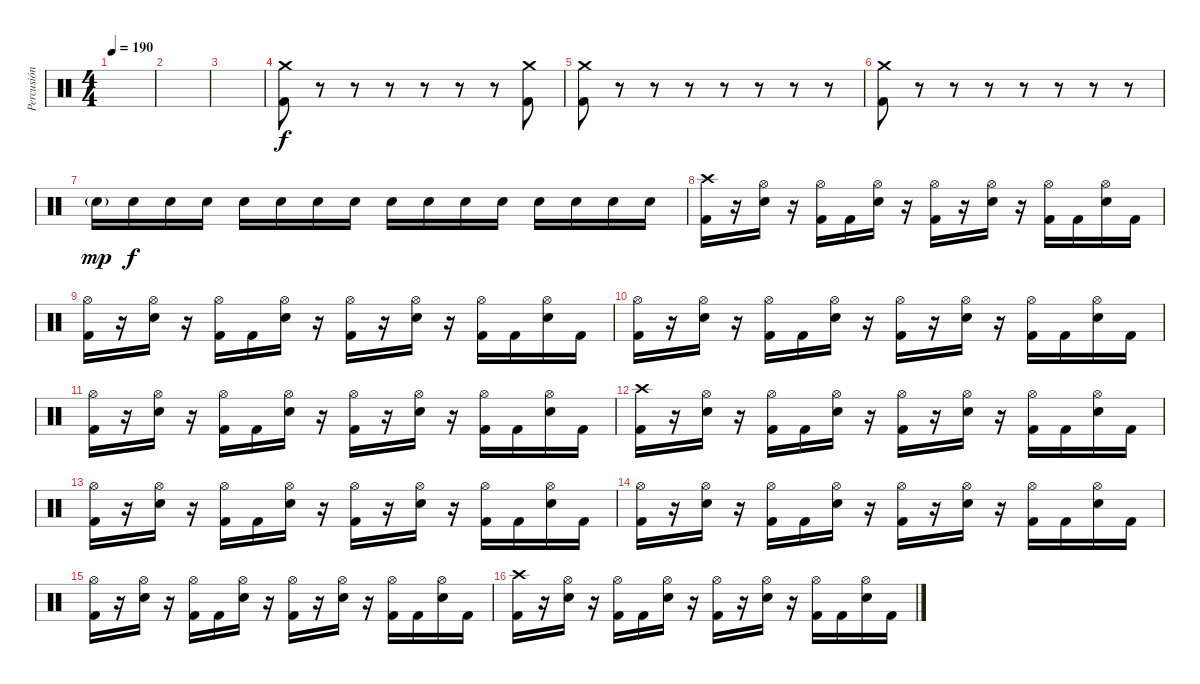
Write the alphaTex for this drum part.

\track ("Percusión" "Percusión") {instrument percussion}
\staff {score}
\articulation defaults
\ts (4 4)
\tempo 190
\clef neutral
\ks c
|
|
|
("Crash medium (hit)" "Kick (hit) 2").8 r.8 r.8 r.8 r.8 r.8 r.8 ("Crash medium (hit)" "Kick (hit) 2").8 |
("Crash medium (hit)" "Kick (hit) 2").8 r.8 r.8 r.8 r.8 r.8 r.8 r.8 |
("Crash medium (hit)" "Kick (hit) 2").8 r.8 r.8 r.8 r.8 r.8 r.8 r.8 |
"Electric Snare (hit)"{g}.16{dy mp} "Electric Snare (hit)".16{dy f} "Electric Snare (hit)".16 "Electric Snare (hit)".16 "Electric Snare (hit)".16 "Electric Snare (hit)".16 "Electric Snare (hit)".16 "Electric Snare (hit)".16 "Electric Snare (hit)".16 "Electric Snare (hit)".16 "Electric Snare (hit)".16 "Electric Snare (hit)".16 "Electric Snare (hit)".16 "Electric Snare (hit)".16 "Electric Snare (hit)".16 "Electric Snare (hit)".16 |
("Crash high (hit)" "Kick (hit) 2").16 r.16 ("Hi-Hat (open)" "Electric Snare (hit)").16 r.16 ("Hi-Hat (open)" "Kick (hit) 2").16 "Kick (hit) 2".16 ("Hi-Hat (open)" "Electric Snare (hit)").16 r.16 ("Hi-Hat (open)" "Kick (hit) 2").16 r.16 ("Hi-Hat (open)" "Electric Snare (hit)").16 r.16 ("Hi-Hat (open)" "Kick (hit) 2").16 "Kick (hit) 2".16 ("Hi-Hat (open)" "Electric Snare (hit)").16 "Kick (hit) 2".16 |
("Hi-Hat (open)" "Kick (hit) 2").16 r.16 ("Hi-Hat (open)" "Electric Snare (hit)").16 r.16 ("Hi-Hat (open)" "Kick (hit) 2").16 "Kick (hit) 2".16 ("Hi-Hat (open)" "Electric Snare (hit)").16 r.16 ("Hi-Hat (open)" "Kick (hit) 2").16 r.16 ("Hi-Hat (open)" "Electric Snare (hit)").16 r.16 ("Hi-Hat (open)" "Kick (hit) 2").16 "Kick (hit) 2".16 ("Hi-Hat (open)" "Electric Snare (hit)").16 "Kick (hit) 2".16 |
("Hi-Hat (open)" "Kick (hit) 2").16 r.16 ("Hi-Hat (open)" "Electric Snare (hit)").16 r.16 ("Hi-Hat (open)" "Kick (hit) 2").16 "Kick (hit) 2".16 ("Hi-Hat (open)" "Electric Snare (hit)").16 r.16 ("Hi-Hat (open)" "Kick (hit) 2").16 r.16 ("Hi-Hat (open)" "Electric Snare (hit)").16 r.16 ("Hi-Hat (open)" "Kick (hit) 2").16 "Kick (hit) 2".16 ("Hi-Hat (open)" "Electric Snare (hit)").16 "Kick (hit) 2".16 |
("Hi-Hat (open)" "Kick (hit) 2").16 r.16 ("Hi-Hat (open)" "Electric Snare (hit)").16 r.16 ("Hi-Hat (open)" "Kick (hit) 2").16 "Kick (hit) 2".16 ("Hi-Hat (open)" "Electric Snare (hit)").16 r.16 ("Hi-Hat (open)" "Kick (hit) 2").16 r.16 ("Hi-Hat (open)" "Electric Snare (hit)").16 r.16 ("Hi-Hat (open)" "Kick (hit) 2").16 "Kick (hit) 2".16 ("Hi-Hat (open)" "Electric Snare (hit)").16 "Kick (hit) 2".16 |
("Crash high (hit)" "Kick (hit) 2").16 r.16 ("Hi-Hat (open)" "Electric Snare (hit)").16 r.16 ("Hi-Hat (open)" "Kick (hit) 2").16 "Kick (hit) 2".16 ("Hi-Hat (open)" "Electric Snare (hit)").16 r.16 ("Hi-Hat (open)" "Kick (hit) 2").16 r.16 ("Hi-Hat (open)" "Electric Snare (hit)").16 r.16 ("Hi-Hat (open)" "Kick (hit) 2").16 "Kick (hit) 2".16 ("Hi-Hat (open)" "Electric Snare (hit)").16 "Kick (hit) 2".16 |
("Hi-Hat (open)" "Kick (hit) 2").16 r.16 ("Hi-Hat (open)" "Electric Snare (hit)").16 r.16 ("Hi-Hat (open)" "Kick (hit) 2").16 "Kick (hit) 2".16 ("Hi-Hat (open)" "Electric Snare (hit)").16 r.16 ("Hi-Hat (open)" "Kick (hit) 2").16 r.16 ("Hi-Hat (open)" "Electric Snare (hit)").16 r.16 ("Hi-Hat (open)" "Kick (hit) 2").16 "Kick (hit) 2".16 ("Hi-Hat (open)" "Electric Snare (hit)").16 "Kick (hit) 2".16 |
("Hi-Hat (open)" "Kick (hit) 2").16 r.16 ("Hi-Hat (open)" "Electric Snare (hit)").16 r.16 ("Hi-Hat (open)" "Kick (hit) 2").16 "Kick (hit) 2".16 ("Hi-Hat (open)" "Electric Snare (hit)").16 r.16 ("Hi-Hat (open)" "Kick (hit) 2").16 r.16 ("Hi-Hat (open)" "Electric Snare (hit)").16 r.16 ("Hi-Hat (open)" "Kick (hit) 2").16 "Kick (hit) 2".16 ("Hi-Hat (open)" "Electric Snare (hit)").16 "Kick (hit) 2".16 |
("Hi-Hat (open)" "Kick (hit) 2").16 r.16 ("Hi-Hat (open)" "Electric Snare (hit)").16 r.16 ("Hi-Hat (open)" "Kick (hit) 2").16 "Kick (hit) 2".16 ("Hi-Hat (open)" "Electric Snare (hit)").16 r.16 ("Hi-Hat (open)" "Kick (hit) 2").16 r.16 ("Hi-Hat (open)" "Electric Snare (hit)").16 r.16 ("Hi-Hat (open)" "Kick (hit) 2").16 "Kick (hit) 2".16 ("Hi-Hat (open)" "Electric Snare (hit)").16 "Kick (hit) 2".16 |
("Crash high (hit)" "Kick (hit) 2").16 r.16 ("Hi-Hat (open)" "Electric Snare (hit)").16 r.16 ("Hi-Hat (open)" "Kick (hit) 2").16 "Kick (hit) 2".16 ("Hi-Hat (open)" "Electric Snare (hit)").16 r.16 ("Hi-Hat (open)" "Kick (hit) 2").16 r.16 ("Hi-Hat (open)" "Electric Snare (hit)").16 r.16 ("Hi-Hat (open)" "Kick (hit) 2").16 "Kick (hit) 2".16 ("Hi-Hat (open)" "Electric Snare (hit)").16 "Kick (hit) 2".16
